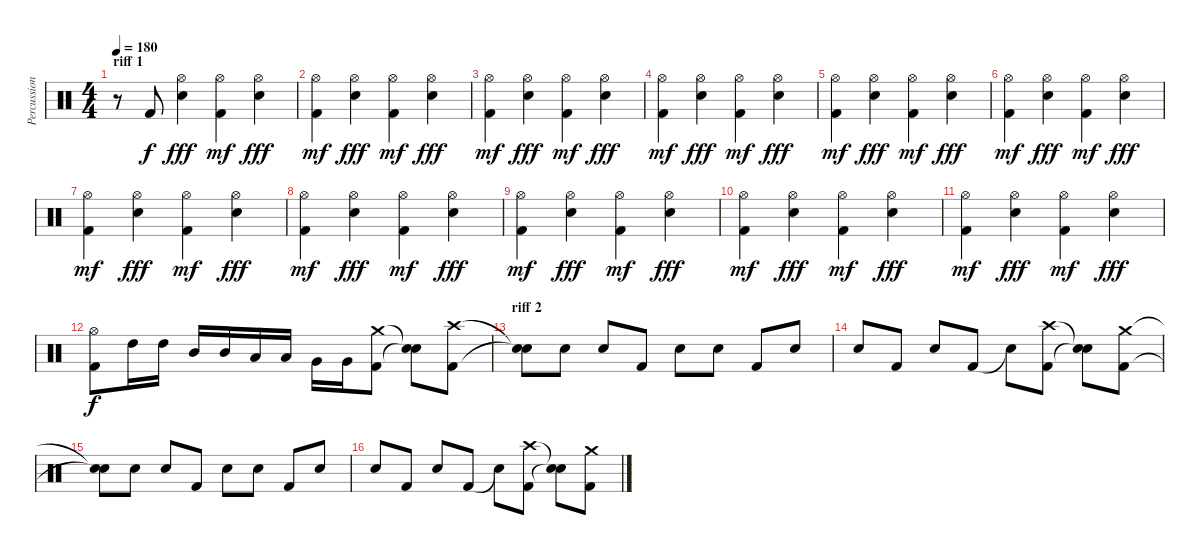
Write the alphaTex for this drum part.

\track ("Percussions" "Percussion") {instrument percussion}
\staff {score}
\articulation defaults
\ts (4 4)
\section ("" "riff 1")
\tempo 180
\clef neutral
\ks c
r.8{dy f} "Kick (hit) 2".8 ("Hi-Hat (open)" "Electric Snare (hit)").4{dy fff} ("Hi-Hat (open)" "Kick (hit) 2").4{dy mf} ("Hi-Hat (open)" "Electric Snare (hit)").4{dy fff} |
("Hi-Hat (open)" "Kick (hit) 2").4{dy mf} ("Hi-Hat (open)" "Electric Snare (hit)").4{dy fff} ("Hi-Hat (open)" "Kick (hit) 2").4{dy mf} ("Hi-Hat (open)" "Electric Snare (hit)").4{dy fff} |
("Hi-Hat (open)" "Kick (hit) 2").4{dy mf} ("Hi-Hat (open)" "Electric Snare (hit)").4{dy fff} ("Hi-Hat (open)" "Kick (hit) 2").4{dy mf} ("Hi-Hat (open)" "Electric Snare (hit)").4{dy fff} |
("Hi-Hat (open)" "Kick (hit) 2").4{dy mf} ("Hi-Hat (open)" "Electric Snare (hit)").4{dy fff} ("Hi-Hat (open)" "Kick (hit) 2").4{dy mf} ("Hi-Hat (open)" "Electric Snare (hit)").4{dy fff} |
("Hi-Hat (open)" "Kick (hit) 2").4{dy mf} ("Hi-Hat (open)" "Electric Snare (hit)").4{dy fff} ("Hi-Hat (open)" "Kick (hit) 2").4{dy mf} ("Hi-Hat (open)" "Electric Snare (hit)").4{dy fff} |
("Hi-Hat (open)" "Kick (hit) 2").4{dy mf} ("Hi-Hat (open)" "Electric Snare (hit)").4{dy fff} ("Hi-Hat (open)" "Kick (hit) 2").4{dy mf} ("Hi-Hat (open)" "Electric Snare (hit)").4{dy fff} |
("Hi-Hat (open)" "Kick (hit) 2").4{dy mf} ("Hi-Hat (open)" "Electric Snare (hit)").4{dy fff} ("Hi-Hat (open)" "Kick (hit) 2").4{dy mf} ("Hi-Hat (open)" "Electric Snare (hit)").4{dy fff} |
("Hi-Hat (open)" "Kick (hit) 2").4{dy mf} ("Hi-Hat (open)" "Electric Snare (hit)").4{dy fff} ("Hi-Hat (open)" "Kick (hit) 2").4{dy mf} ("Hi-Hat (open)" "Electric Snare (hit)").4{dy fff} |
("Hi-Hat (open)" "Kick (hit) 2").4{dy mf} ("Hi-Hat (open)" "Electric Snare (hit)").4{dy fff} ("Hi-Hat (open)" "Kick (hit) 2").4{dy mf} ("Hi-Hat (open)" "Electric Snare (hit)").4{dy fff} |
("Hi-Hat (open)" "Kick (hit) 2").4{dy mf} ("Hi-Hat (open)" "Electric Snare (hit)").4{dy fff} ("Hi-Hat (open)" "Kick (hit) 2").4{dy mf} ("Hi-Hat (open)" "Electric Snare (hit)").4{dy fff} |
("Hi-Hat (open)" "Kick (hit) 2").4{dy mf} ("Hi-Hat (open)" "Electric Snare (hit)").4{dy fff} ("Hi-Hat (open)" "Kick (hit) 2").4{dy mf} ("Hi-Hat (open)" "Electric Snare (hit)").4{dy fff} |
("Hi-Hat (open)" "Kick (hit) 2").8{dy f} "High Tom (hit)".16 "High Tom (hit)".16 "Mid Tom (hit)".16 "Mid Tom (hit)".16 "Low Tom (hit)".16 "Low Tom (hit)".16 "Very Low Tom (hit)".16 "Very Low Tom (hit)".16 ("Crash medium (hit)" "Kick (hit) 2").8 ("Snare (hit)"{t} "Snare (hit)"{t}).8 ("Crash high (hit)" "Kick (hit) 2").8 |
\section ("" "riff 2")
("Snare (hit)"{t} "Snare (hit)"{t}).8 "Electric Snare (hit)".8 "Electric Snare (hit)".8 "Kick (hit) 2".8 "Electric Snare (hit)".8 "Electric Snare (hit)".8 "Kick (hit) 2".8 "Electric Snare (hit)".8 |
"Electric Snare (hit)".8 "Kick (hit) 2".8 "Electric Snare (hit)".8 "Kick (hit) 2".8 "Snare (hit)"{t}.8 ("Crash high (hit)" "Kick (hit) 2").8 ("Snare (hit)"{t} "Snare (hit)"{t}).8 ("Crash medium (hit)" "Kick (hit) 2").8 |
("Snare (hit)"{t} "Snare (hit)"{t}).8 "Electric Snare (hit)".8 "Electric Snare (hit)".8 "Kick (hit) 2".8 "Electric Snare (hit)".8 "Electric Snare (hit)".8 "Kick (hit) 2".8 "Electric Snare (hit)".8 |
"Electric Snare (hit)".8 "Kick (hit) 2".8 "Electric Snare (hit)".8 "Kick (hit) 2".8 "Snare (hit)"{t}.8 ("Crash high (hit)" "Kick (hit) 2").8 ("Snare (hit)"{t} "Snare (hit)"{t}).8 ("Crash medium (hit)" "Kick (hit) 2").8
